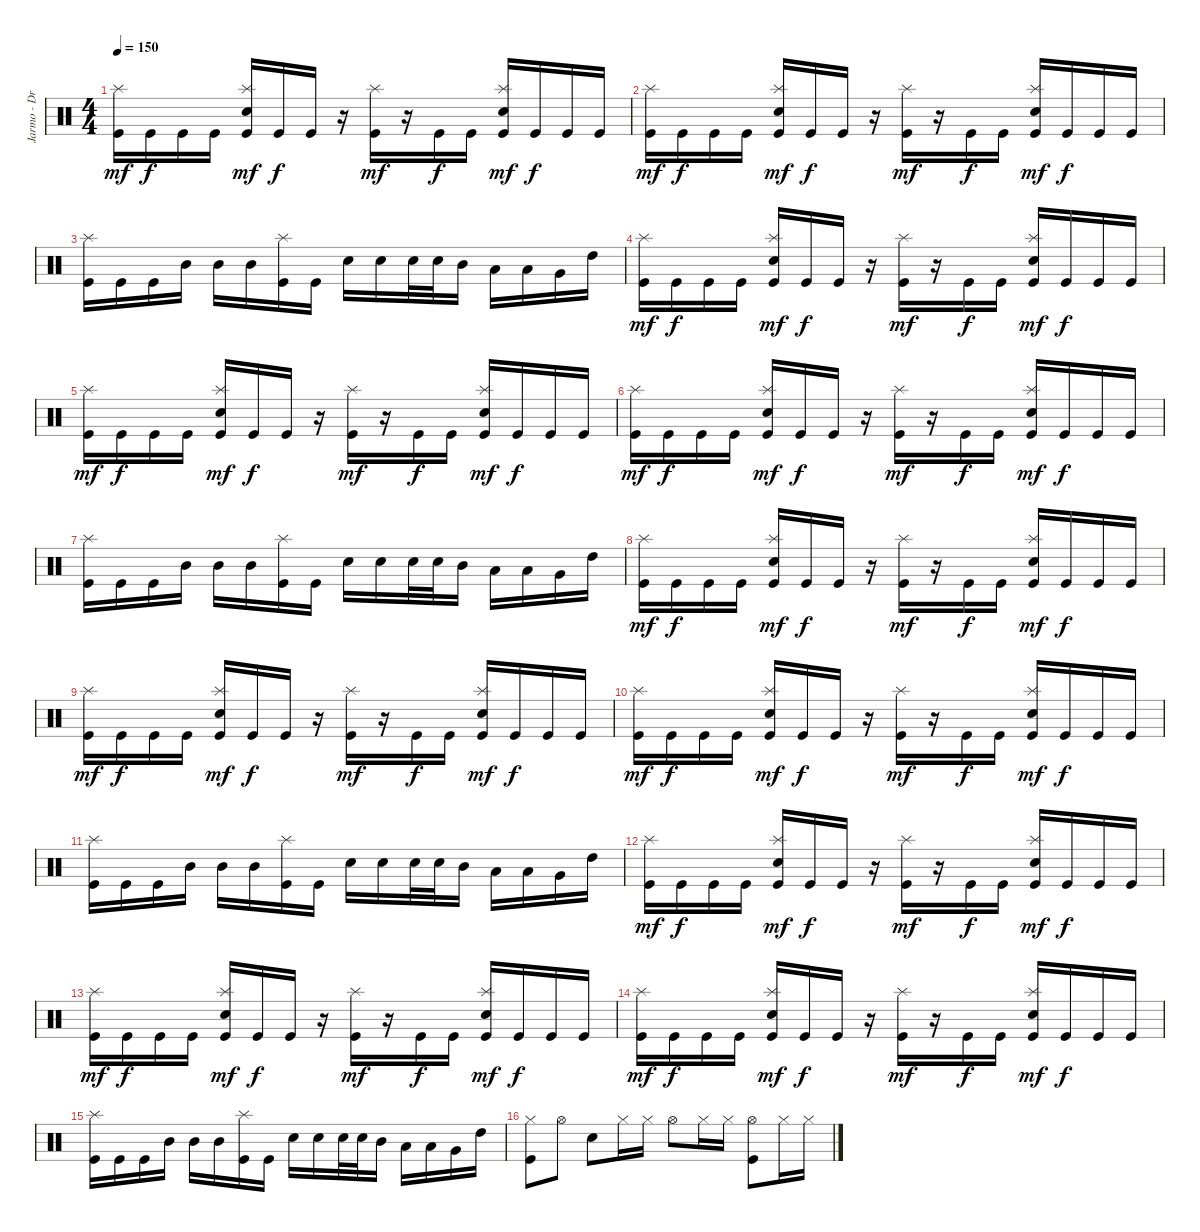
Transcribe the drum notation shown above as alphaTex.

\track ("Jarmo - Drums/Vodka" "Jarmo - Dr") {instrument percussion}
\staff {score}
\articulation defaults
\ts (4 4)
\tempo 150
\clef neutral
\ks c
("Kick (hit)" "Splash (hit)").16{dy mf} "Kick (hit)".16{dy f} "Kick (hit)".16 "Kick (hit)".16 ("Kick (hit)" "Electric Snare (hit)" "Splash (hit)").16{dy mf} "Kick (hit)".16{dy f} "Kick (hit)".16 r.16 ("Kick (hit)" "Splash (hit)").16{dy mf} r.16 "Kick (hit)".16{dy f} "Kick (hit)".16 ("Kick (hit)" "Electric Snare (hit)" "Splash (hit)").16{dy mf} "Kick (hit)".16{dy f} "Kick (hit)".16 "Kick (hit)".16 |
("Kick (hit)" "Splash (hit)").16{dy mf} "Kick (hit)".16{dy f} "Kick (hit)".16 "Kick (hit)".16 ("Kick (hit)" "Electric Snare (hit)" "Splash (hit)").16{dy mf} "Kick (hit)".16{dy f} "Kick (hit)".16 r.16 ("Kick (hit)" "Splash (hit)").16{dy mf} r.16 "Kick (hit)".16{dy f} "Kick (hit)".16 ("Kick (hit)" "Electric Snare (hit)" "Splash (hit)").16{dy mf} "Kick (hit)".16{dy f} "Kick (hit)".16 "Kick (hit)".16 |
("Kick (hit)" "Splash (hit)").16 "Kick (hit)".16 "Kick (hit)".16 "Mid Tom (hit)".16 "Mid Tom (hit)".16 "Mid Tom (hit)".16 ("Kick (hit)" "Splash (hit)").16 "Kick (hit)".16 "Electric Snare (hit)".16 "Electric Snare (hit)".16 "Electric Snare (hit)".32 "Electric Snare (hit)".32 "Mid Tom (hit)".16 "Low Tom (hit)".16 "Low Tom (hit)".16 "Very Low Tom (hit)".16 "High Tom (hit)".16 |
("Kick (hit)" "Splash (hit)").16{dy mf} "Kick (hit)".16{dy f} "Kick (hit)".16 "Kick (hit)".16 ("Kick (hit)" "Electric Snare (hit)" "Splash (hit)").16{dy mf} "Kick (hit)".16{dy f} "Kick (hit)".16 r.16 ("Kick (hit)" "Splash (hit)").16{dy mf} r.16 "Kick (hit)".16{dy f} "Kick (hit)".16 ("Kick (hit)" "Electric Snare (hit)" "Splash (hit)").16{dy mf} "Kick (hit)".16{dy f} "Kick (hit)".16 "Kick (hit)".16 |
("Kick (hit)" "Splash (hit)").16{dy mf} "Kick (hit)".16{dy f} "Kick (hit)".16 "Kick (hit)".16 ("Kick (hit)" "Electric Snare (hit)" "Splash (hit)").16{dy mf} "Kick (hit)".16{dy f} "Kick (hit)".16 r.16 ("Kick (hit)" "Splash (hit)").16{dy mf} r.16 "Kick (hit)".16{dy f} "Kick (hit)".16 ("Kick (hit)" "Electric Snare (hit)" "Splash (hit)").16{dy mf} "Kick (hit)".16{dy f} "Kick (hit)".16 "Kick (hit)".16 |
("Kick (hit)" "Splash (hit)").16{dy mf} "Kick (hit)".16{dy f} "Kick (hit)".16 "Kick (hit)".16 ("Kick (hit)" "Electric Snare (hit)" "Splash (hit)").16{dy mf} "Kick (hit)".16{dy f} "Kick (hit)".16 r.16 ("Kick (hit)" "Splash (hit)").16{dy mf} r.16 "Kick (hit)".16{dy f} "Kick (hit)".16 ("Kick (hit)" "Electric Snare (hit)" "Splash (hit)").16{dy mf} "Kick (hit)".16{dy f} "Kick (hit)".16 "Kick (hit)".16 |
("Kick (hit)" "Splash (hit)").16 "Kick (hit)".16 "Kick (hit)".16 "Mid Tom (hit)".16 "Mid Tom (hit)".16 "Mid Tom (hit)".16 ("Kick (hit)" "Splash (hit)").16 "Kick (hit)".16 "Electric Snare (hit)".16 "Electric Snare (hit)".16 "Electric Snare (hit)".32 "Electric Snare (hit)".32 "Mid Tom (hit)".16 "Low Tom (hit)".16 "Low Tom (hit)".16 "Very Low Tom (hit)".16 "High Tom (hit)".16 |
("Kick (hit)" "Splash (hit)").16{dy mf} "Kick (hit)".16{dy f} "Kick (hit)".16 "Kick (hit)".16 ("Kick (hit)" "Electric Snare (hit)" "Splash (hit)").16{dy mf} "Kick (hit)".16{dy f} "Kick (hit)".16 r.16 ("Kick (hit)" "Splash (hit)").16{dy mf} r.16 "Kick (hit)".16{dy f} "Kick (hit)".16 ("Kick (hit)" "Electric Snare (hit)" "Splash (hit)").16{dy mf} "Kick (hit)".16{dy f} "Kick (hit)".16 "Kick (hit)".16 |
("Kick (hit)" "Splash (hit)").16{dy mf} "Kick (hit)".16{dy f} "Kick (hit)".16 "Kick (hit)".16 ("Kick (hit)" "Electric Snare (hit)" "Splash (hit)").16{dy mf} "Kick (hit)".16{dy f} "Kick (hit)".16 r.16 ("Kick (hit)" "Splash (hit)").16{dy mf} r.16 "Kick (hit)".16{dy f} "Kick (hit)".16 ("Kick (hit)" "Electric Snare (hit)" "Splash (hit)").16{dy mf} "Kick (hit)".16{dy f} "Kick (hit)".16 "Kick (hit)".16 |
("Kick (hit)" "Splash (hit)").16{dy mf} "Kick (hit)".16{dy f} "Kick (hit)".16 "Kick (hit)".16 ("Kick (hit)" "Electric Snare (hit)" "Splash (hit)").16{dy mf} "Kick (hit)".16{dy f} "Kick (hit)".16 r.16 ("Kick (hit)" "Splash (hit)").16{dy mf} r.16 "Kick (hit)".16{dy f} "Kick (hit)".16 ("Kick (hit)" "Electric Snare (hit)" "Splash (hit)").16{dy mf} "Kick (hit)".16{dy f} "Kick (hit)".16 "Kick (hit)".16 |
("Kick (hit)" "Splash (hit)").16 "Kick (hit)".16 "Kick (hit)".16 "Mid Tom (hit)".16 "Mid Tom (hit)".16 "Mid Tom (hit)".16 ("Kick (hit)" "Splash (hit)").16 "Kick (hit)".16 "Electric Snare (hit)".16 "Electric Snare (hit)".16 "Electric Snare (hit)".32 "Electric Snare (hit)".32 "Mid Tom (hit)".16 "Low Tom (hit)".16 "Low Tom (hit)".16 "Very Low Tom (hit)".16 "High Tom (hit)".16 |
("Kick (hit)" "Splash (hit)").16{dy mf} "Kick (hit)".16{dy f} "Kick (hit)".16 "Kick (hit)".16 ("Kick (hit)" "Electric Snare (hit)" "Splash (hit)").16{dy mf} "Kick (hit)".16{dy f} "Kick (hit)".16 r.16 ("Kick (hit)" "Splash (hit)").16{dy mf} r.16 "Kick (hit)".16{dy f} "Kick (hit)".16 ("Kick (hit)" "Electric Snare (hit)" "Splash (hit)").16{dy mf} "Kick (hit)".16{dy f} "Kick (hit)".16 "Kick (hit)".16 |
("Kick (hit)" "Splash (hit)").16{dy mf} "Kick (hit)".16{dy f} "Kick (hit)".16 "Kick (hit)".16 ("Kick (hit)" "Electric Snare (hit)" "Splash (hit)").16{dy mf} "Kick (hit)".16{dy f} "Kick (hit)".16 r.16 ("Kick (hit)" "Splash (hit)").16{dy mf} r.16 "Kick (hit)".16{dy f} "Kick (hit)".16 ("Kick (hit)" "Electric Snare (hit)" "Splash (hit)").16{dy mf} "Kick (hit)".16{dy f} "Kick (hit)".16 "Kick (hit)".16 |
("Kick (hit)" "Splash (hit)").16{dy mf} "Kick (hit)".16{dy f} "Kick (hit)".16 "Kick (hit)".16 ("Kick (hit)" "Electric Snare (hit)" "Splash (hit)").16{dy mf} "Kick (hit)".16{dy f} "Kick (hit)".16 r.16 ("Kick (hit)" "Splash (hit)").16{dy mf} r.16 "Kick (hit)".16{dy f} "Kick (hit)".16 ("Kick (hit)" "Electric Snare (hit)" "Splash (hit)").16{dy mf} "Kick (hit)".16{dy f} "Kick (hit)".16 "Kick (hit)".16 |
("Kick (hit)" "Splash (hit)").16 "Kick (hit)".16 "Kick (hit)".16 "Mid Tom (hit)".16 "Mid Tom (hit)".16 "Mid Tom (hit)".16 ("Kick (hit)" "Splash (hit)").16 "Kick (hit)".16 "Electric Snare (hit)".16 "Electric Snare (hit)".16 "Electric Snare (hit)".32 "Electric Snare (hit)".32 "Mid Tom (hit)".16 "Low Tom (hit)".16 "Low Tom (hit)".16 "Very Low Tom (hit)".16 "High Tom (hit)".16 |
("Kick (hit)" "Hi-Hat (closed)").8 "Hi-Hat (open)".8 "Electric Snare (hit)".8 "Hi-Hat (closed)".16 "Hi-Hat (closed)".16 "Hi-Hat (open)".8 "Hi-Hat (closed)".16 "Hi-Hat (closed)".16 ("Kick (hit)" "Hi-Hat (open)").8 "Hi-Hat (closed)".16 "Hi-Hat (closed)".16
